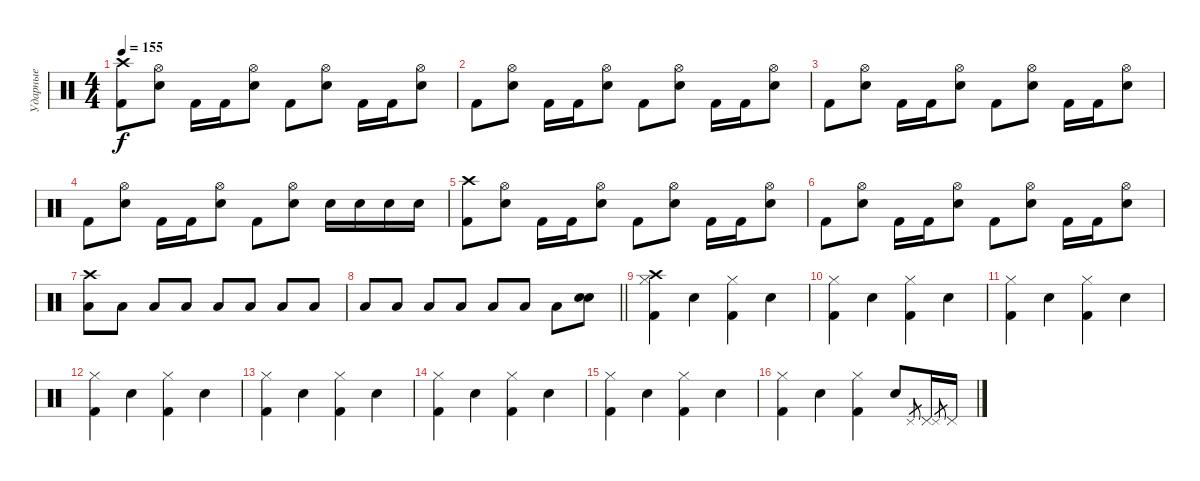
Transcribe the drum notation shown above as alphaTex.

\track ("Ударные" "Ударные") {instrument percussion}
\staff {score}
\articulation defaults
\ts (4 4)
\tempo 155
\clef neutral
\ks c
("Kick (hit) 2" "Crash high (hit)").8{dy f} ("Electric Snare (hit)" "Hi-Hat (open)").8 "Kick (hit) 2".16 "Kick (hit) 2".16 ("Electric Snare (hit)" "Hi-Hat (open)").8 "Kick (hit) 2".8 ("Electric Snare (hit)" "Hi-Hat (open)").8 "Kick (hit) 2".16 "Kick (hit) 2".16 ("Electric Snare (hit)" "Hi-Hat (open)").8 |
"Kick (hit) 2".8 ("Electric Snare (hit)" "Hi-Hat (open)").8 "Kick (hit) 2".16 "Kick (hit) 2".16 ("Electric Snare (hit)" "Hi-Hat (open)").8 "Kick (hit) 2".8 ("Electric Snare (hit)" "Hi-Hat (open)").8 "Kick (hit) 2".16 "Kick (hit) 2".16 ("Electric Snare (hit)" "Hi-Hat (open)").8 |
"Kick (hit) 2".8 ("Electric Snare (hit)" "Hi-Hat (open)").8 "Kick (hit) 2".16 "Kick (hit) 2".16 ("Electric Snare (hit)" "Hi-Hat (open)").8 "Kick (hit) 2".8 ("Electric Snare (hit)" "Hi-Hat (open)").8 "Kick (hit) 2".16 "Kick (hit) 2".16 ("Electric Snare (hit)" "Hi-Hat (open)").8 |
"Kick (hit) 2".8 ("Electric Snare (hit)" "Hi-Hat (open)").8 "Kick (hit) 2".16 "Kick (hit) 2".16 ("Electric Snare (hit)" "Hi-Hat (open)").8 "Kick (hit) 2".8 ("Electric Snare (hit)" "Hi-Hat (open)").8 "Electric Snare (hit)".16 "Electric Snare (hit)".16 "Electric Snare (hit)".16 "Electric Snare (hit)".16 |
("Kick (hit) 2" "Crash high (hit)").8 ("Electric Snare (hit)" "Hi-Hat (open)").8 "Kick (hit) 2".16 "Kick (hit) 2".16 ("Electric Snare (hit)" "Hi-Hat (open)").8 "Kick (hit) 2".8 ("Electric Snare (hit)" "Hi-Hat (open)").8 "Kick (hit) 2".16 "Kick (hit) 2".16 ("Electric Snare (hit)" "Hi-Hat (open)").8 |
"Kick (hit) 2".8 ("Electric Snare (hit)" "Hi-Hat (open)").8 "Kick (hit) 2".16 "Kick (hit) 2".16 ("Electric Snare (hit)" "Hi-Hat (open)").8 "Kick (hit) 2".8 ("Electric Snare (hit)" "Hi-Hat (open)").8 "Kick (hit) 2".16 "Kick (hit) 2".16 ("Electric Snare (hit)" "Hi-Hat (open)").8 |
("Low Floor Tom (hit)" "Crash high (hit)").8 "Low Floor Tom (hit)".8 "Low Floor Tom (hit)".8 "Low Floor Tom (hit)".8 "Low Floor Tom (hit)".8 "Low Floor Tom (hit)".8 "Low Floor Tom (hit)".8 "Low Floor Tom (hit)".8 |
\barLineRight lightlight "Low Floor Tom (hit)".8 "Low Floor Tom (hit)".8 "Low Floor Tom (hit)".8 "Low Floor Tom (hit)".8 "Low Floor Tom (hit)".8 "Low Floor Tom (hit)".8 "Low Floor Tom (hit)".8
("Electric Snare (hit)" "Electric Snare (hit)").8 |
("Kick (hit) 2" "Crash high (hit)" "Hi-Hat (closed)").4 "Electric Snare (hit)".4 ("Kick (hit) 2" "Hi-Hat (closed)").4 "Electric Snare (hit)".4 |
("Kick (hit) 2" "Hi-Hat (closed)").4 "Electric Snare (hit)".4 ("Kick (hit) 2" "Hi-Hat (closed)").4 "Electric Snare (hit)".4 |
("Kick (hit) 2" "Hi-Hat (closed)").4 "Electric Snare (hit)".4 ("Kick (hit) 2" "Hi-Hat (closed)").4 "Electric Snare (hit)".4 |
("Kick (hit) 2" "Hi-Hat (closed)").4 "Electric Snare (hit)".4 ("Kick (hit) 2" "Hi-Hat (closed)").4 "Electric Snare (hit)".4 |
("Kick (hit) 2" "Hi-Hat (closed)").4 "Electric Snare (hit)".4 ("Kick (hit) 2" "Hi-Hat (closed)").4 "Electric Snare (hit)".4 |
("Kick (hit) 2" "Hi-Hat (closed)").4 "Electric Snare (hit)".4 ("Kick (hit) 2" "Hi-Hat (closed)").4 "Electric Snare (hit)".4 |
("Kick (hit) 2" "Hi-Hat (closed)").4 "Electric Snare (hit)".4 ("Kick (hit) 2" "Hi-Hat (closed)").4 "Electric Snare (hit)".4 |
("Kick (hit) 2" "Hi-Hat (closed)").4 "Electric Snare (hit)".4 ("Kick (hit) 2" "Hi-Hat (closed)").4 "Electric Snare (hit)".8 "Pedal Hi-Hat (hit)".8{gr} "Pedal Hi-Hat (hit)".16 "Pedal Hi-Hat (hit)".8{gr} "Pedal Hi-Hat (hit)".16
